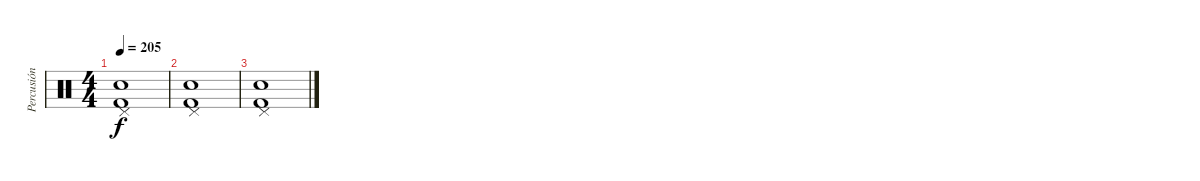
\track ("Percusión" "Percusión") {instrument percussion}
\staff {score}
\articulation defaults
\ts (4 4)
\tempo 205
\clef neutral
\ks c
("Pedal Hi-Hat (hit)" "Snare (hit) 2" "Kick (hit) 2").1{dy f} |
("Pedal Hi-Hat (hit)" "Snare (hit) 2" "Kick (hit) 2").1 |
("Pedal Hi-Hat (hit)" "Snare (hit) 2" "Kick (hit) 2").1
